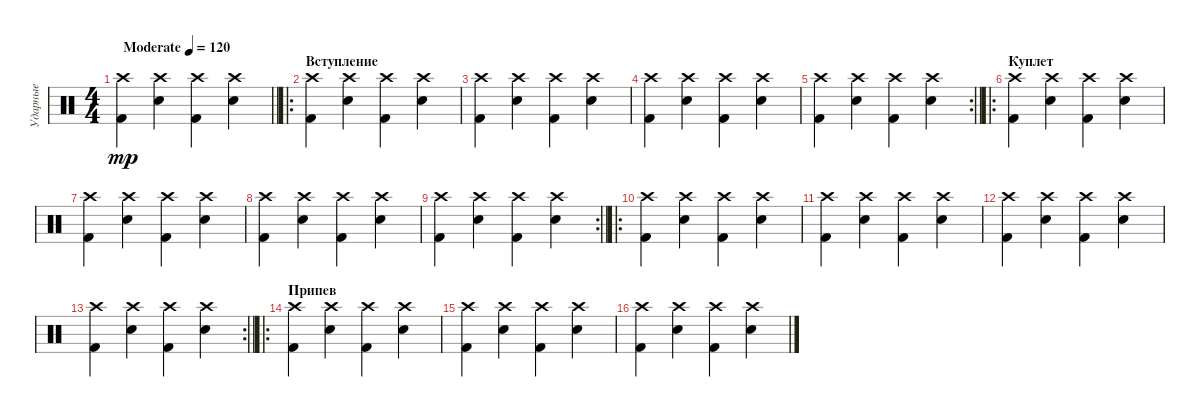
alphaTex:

\track ("Ударные" "Ударные") {instrument percussion}
\staff {score}
\articulation defaults
\ts (4 4)
\tempo (120 "Moderate")
\clef neutral
\barLineRight lightlight
\ks c
("Crash high (hit)" "Kick (hit) 2").4{dy mp} ("Crash high (hit)" "Snare (hit) 2").4 ("Crash high (hit)" "Kick (hit) 2").4 ("Crash high (hit)" "Snare (hit) 2").4 |
\ro
\section ("" "Вступление")
("Crash high (hit)" "Kick (hit) 2").4 ("Crash high (hit)" "Snare (hit) 2").4 ("Crash high (hit)" "Kick (hit) 2").4 ("Crash high (hit)" "Snare (hit) 2").4 |
("Crash high (hit)" "Kick (hit) 2").4 ("Crash high (hit)" "Snare (hit) 2").4 ("Crash high (hit)" "Kick (hit) 2").4 ("Crash high (hit)" "Snare (hit) 2").4 |
("Crash high (hit)" "Kick (hit) 2").4 ("Crash high (hit)" "Snare (hit) 2").4 ("Crash high (hit)" "Kick (hit) 2").4 ("Crash high (hit)" "Snare (hit) 2").4 |
\rc 2
\barLineRight lightlight
("Crash high (hit)" "Kick (hit) 2").4 ("Crash high (hit)" "Snare (hit) 2").4 ("Crash high (hit)" "Kick (hit) 2").4 ("Crash high (hit)" "Snare (hit) 2").4 |
\ro
\section ("" "Куплет")
("Crash high (hit)" "Kick (hit) 2").4 ("Crash high (hit)" "Snare (hit) 2").4 ("Crash high (hit)" "Kick (hit) 2").4 ("Crash high (hit)" "Snare (hit) 2").4 |
("Crash high (hit)" "Kick (hit) 2").4 ("Crash high (hit)" "Snare (hit) 2").4 ("Crash high (hit)" "Kick (hit) 2").4 ("Crash high (hit)" "Snare (hit) 2").4 |
("Crash high (hit)" "Kick (hit) 2").4 ("Crash high (hit)" "Snare (hit) 2").4 ("Crash high (hit)" "Kick (hit) 2").4 ("Crash high (hit)" "Snare (hit) 2").4 |
\rc 2
\barLineRight lightlight
("Crash high (hit)" "Kick (hit) 2").4 ("Crash high (hit)" "Snare (hit) 2").4 ("Crash high (hit)" "Kick (hit) 2").4 ("Crash high (hit)" "Snare (hit) 2").4 |
\ro
("Crash high (hit)" "Kick (hit) 2").4 ("Crash high (hit)" "Snare (hit) 2").4 ("Crash high (hit)" "Kick (hit) 2").4 ("Crash high (hit)" "Snare (hit) 2").4 |
("Crash high (hit)" "Kick (hit) 2").4 ("Crash high (hit)" "Snare (hit) 2").4 ("Crash high (hit)" "Kick (hit) 2").4 ("Crash high (hit)" "Snare (hit) 2").4 |
("Crash high (hit)" "Kick (hit) 2").4 ("Crash high (hit)" "Snare (hit) 2").4 ("Crash high (hit)" "Kick (hit) 2").4 ("Crash high (hit)" "Snare (hit) 2").4 |
\rc 2
\barLineRight lightlight
("Crash high (hit)" "Kick (hit) 2").4 ("Crash high (hit)" "Snare (hit) 2").4 ("Crash high (hit)" "Kick (hit) 2").4 ("Crash high (hit)" "Snare (hit) 2").4 |
\ro
\section ("" "Припев")
("Crash high (hit)" "Kick (hit) 2").4 ("Crash high (hit)" "Snare (hit) 2").4 ("Crash high (hit)" "Kick (hit) 2").4 ("Crash high (hit)" "Snare (hit) 2").4 |
("Crash high (hit)" "Kick (hit) 2").4 ("Crash high (hit)" "Snare (hit) 2").4 ("Crash high (hit)" "Kick (hit) 2").4 ("Crash high (hit)" "Snare (hit) 2").4 |
("Crash high (hit)" "Kick (hit) 2").4 ("Crash high (hit)" "Snare (hit) 2").4 ("Crash high (hit)" "Kick (hit) 2").4 ("Crash high (hit)" "Snare (hit) 2").4
